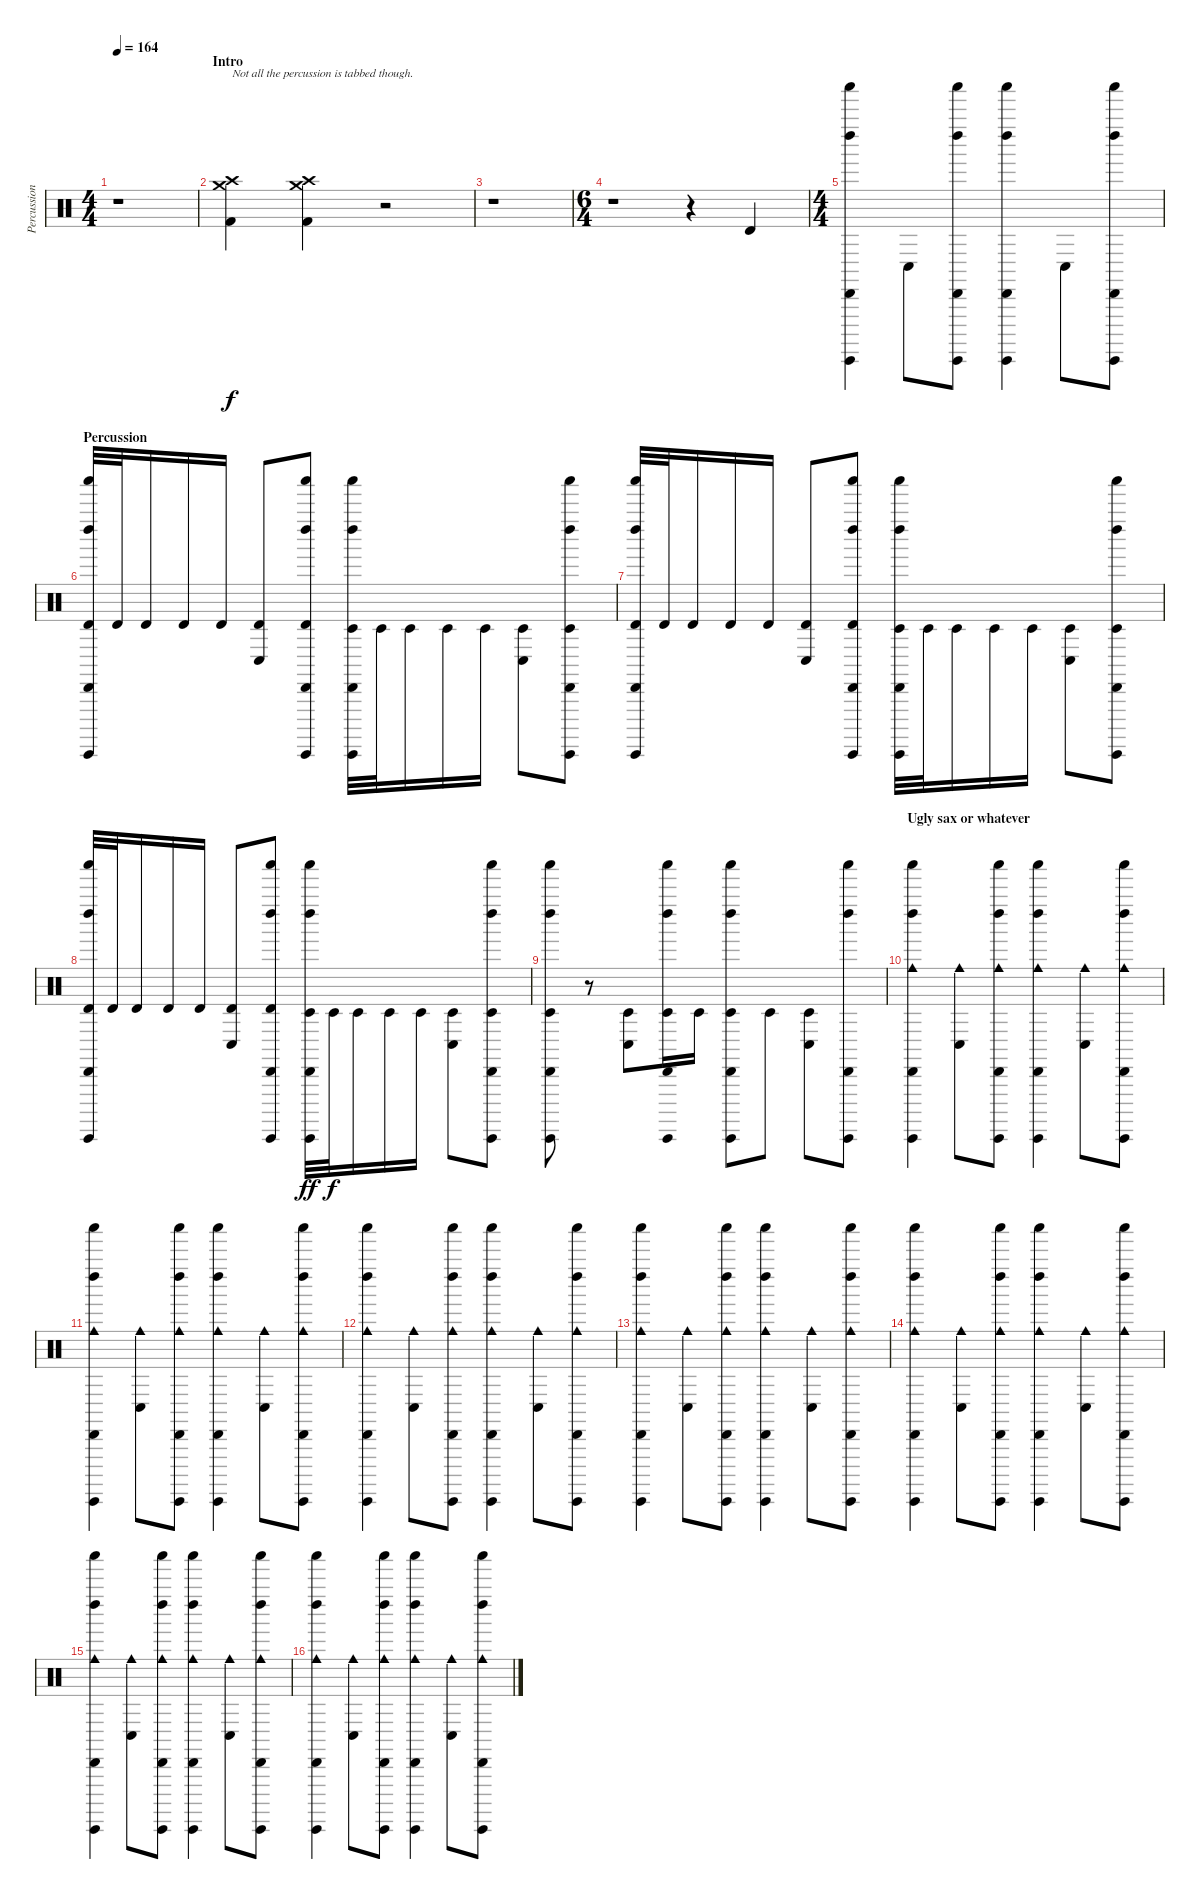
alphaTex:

\track ("Percussion" "Percussion") {instrument percussion}
\staff {score}
\articulation defaults
\ts (4 4)
\tempo 164
\clef neutral
\ks c
r.1{dy f} |
\section ("" "Intro")
("Crash high (hit)" "Crash medium (hit)" "Kick (hit) 2").4{txt "Not all the percussion is tabbed though."} ("Crash high (hit)" "Crash medium (hit)" "Kick (hit) 2").4 r.2 |
r.1 |
\ts (6 4)
r.1 r.4 "Timbale high (hit)".4 |
\ts (4 4)
("Shaker (hit)" "Guiro (hit)" "Left Maraca (hit)" "Cabasa (hit)").4 "Conga low (hit)".8 ("Shaker (hit)" "Guiro (hit)" "Left Maraca (hit)" "Cabasa (hit)").8 ("Shaker (hit)" "Guiro (hit)" "Left Maraca (hit)" "Cabasa (hit)").4 "Conga low (hit)".8 ("Shaker (hit)" "Guiro (hit)" "Left Maraca (hit)" "Cabasa (hit)").8 |
\section ("" "Percussion")
("Shaker (hit)" "Guiro (hit)" "Left Maraca (hit)" "Cabasa (hit)" "Timbale high (hit)").32{balance 0} "Timbale high (hit)".32 "Timbale high (hit)".16 "Timbale high (hit)".16 "Timbale high (hit)".16 ("Conga low (hit)" "Timbale high (hit)").8 ("Shaker (hit)" "Guiro (hit)" "Left Maraca (hit)" "Cabasa (hit)" "Timbale high (hit)").8 ("Shaker (hit)" "Guiro (hit)" "Left Maraca (hit)" "Cabasa (hit)" "Timbale low (hit)").32{balance 16} "Timbale low (hit)".32 "Timbale low (hit)".16 "Timbale low (hit)".16 "Timbale low (hit)".16 ("Conga low (hit)" "Timbale low (hit)").8 ("Shaker (hit)" "Guiro (hit)" "Left Maraca (hit)" "Cabasa (hit)" "Timbale low (hit)").8 |
("Shaker (hit)" "Guiro (hit)" "Left Maraca (hit)" "Cabasa (hit)" "Timbale high (hit)").32{balance 0} "Timbale high (hit)".32 "Timbale high (hit)".16 "Timbale high (hit)".16 "Timbale high (hit)".16 ("Conga low (hit)" "Timbale high (hit)").8 ("Shaker (hit)" "Guiro (hit)" "Left Maraca (hit)" "Cabasa (hit)" "Timbale high (hit)").8 ("Shaker (hit)" "Guiro (hit)" "Left Maraca (hit)" "Cabasa (hit)" "Timbale low (hit)").32{balance 16} "Timbale low (hit)".32 "Timbale low (hit)".16 "Timbale low (hit)".16 "Timbale low (hit)".16 ("Conga low (hit)" "Timbale low (hit)").8 ("Shaker (hit)" "Guiro (hit)" "Left Maraca (hit)" "Cabasa (hit)" "Timbale low (hit)").8 |
("Shaker (hit)" "Guiro (hit)" "Left Maraca (hit)" "Cabasa (hit)" "Timbale high (hit)").32{balance 0} "Timbale high (hit)".32 "Timbale high (hit)".16 "Timbale high (hit)".16 "Timbale high (hit)".16 ("Conga low (hit)" "Timbale high (hit)").8 ("Shaker (hit)" "Guiro (hit)" "Left Maraca (hit)" "Cabasa (hit)" "Timbale high (hit)").8 ("Shaker (hit)" "Guiro (hit)" "Left Maraca (hit)" "Cabasa (hit)" "Timbale low (hit)").32{dy ff balance 16} "Timbale low (hit)".32{dy f} "Timbale low (hit)".16 "Timbale low (hit)".16 "Timbale low (hit)".16 ("Conga low (hit)" "Timbale low (hit)").8 ("Shaker (hit)" "Guiro (hit)" "Left Maraca (hit)" "Cabasa (hit)" "Timbale low (hit)").8 |
("Shaker (hit)" "Guiro (hit)" "Left Maraca (hit)" "Cabasa (hit)" "Timbale low (hit)").8 r.8 ("Conga low (hit)" "Timbale low (hit)").8 ("Shaker (hit)" "Guiro (hit)" "Left Maraca (hit)" "Cabasa (hit)" "Timbale low (hit)").16 "Timbale low (hit)".16 ("Shaker (hit)" "Guiro (hit)" "Left Maraca (hit)" "Cabasa (hit)" "Timbale low (hit)").8 "Timbale low (hit)".8 ("Conga low (hit)" "Timbale low (hit)").8 ("Shaker (hit)" "Guiro (hit)" "Left Maraca (hit)" "Cabasa (hit)").8 |
\section ("" "Ugly sax or whatever")
("Shaker (hit)" "Guiro (hit)" "Left Maraca (hit)" "Cabasa (hit)" "Cowbell medium (hit)").4{balance 8} ("Conga low (hit)" "Cowbell medium (hit)").8 ("Shaker (hit)" "Guiro (hit)" "Left Maraca (hit)" "Cabasa (hit)" "Cowbell medium (hit)").8 ("Shaker (hit)" "Guiro (hit)" "Left Maraca (hit)" "Cabasa (hit)" "Cowbell medium (hit)").4 ("Conga low (hit)" "Cowbell medium (hit)").8 ("Shaker (hit)" "Guiro (hit)" "Left Maraca (hit)" "Cabasa (hit)" "Cowbell medium (hit)").8 |
("Shaker (hit)" "Guiro (hit)" "Left Maraca (hit)" "Cabasa (hit)" "Cowbell medium (hit)").4 ("Conga low (hit)" "Cowbell medium (hit)").8 ("Shaker (hit)" "Guiro (hit)" "Left Maraca (hit)" "Cabasa (hit)" "Cowbell medium (hit)").8 ("Shaker (hit)" "Guiro (hit)" "Left Maraca (hit)" "Cabasa (hit)" "Cowbell medium (hit)").4 ("Conga low (hit)" "Cowbell medium (hit)").8 ("Shaker (hit)" "Guiro (hit)" "Left Maraca (hit)" "Cabasa (hit)" "Cowbell medium (hit)").8 |
("Shaker (hit)" "Guiro (hit)" "Left Maraca (hit)" "Cabasa (hit)" "Cowbell medium (hit)").4 ("Conga low (hit)" "Cowbell medium (hit)").8 ("Shaker (hit)" "Guiro (hit)" "Left Maraca (hit)" "Cabasa (hit)" "Cowbell medium (hit)").8 ("Shaker (hit)" "Guiro (hit)" "Left Maraca (hit)" "Cabasa (hit)" "Cowbell medium (hit)").4 ("Conga low (hit)" "Cowbell medium (hit)").8 ("Shaker (hit)" "Guiro (hit)" "Left Maraca (hit)" "Cabasa (hit)" "Cowbell medium (hit)").8 |
("Shaker (hit)" "Guiro (hit)" "Left Maraca (hit)" "Cabasa (hit)" "Cowbell medium (hit)").4 ("Conga low (hit)" "Cowbell medium (hit)").8 ("Shaker (hit)" "Guiro (hit)" "Left Maraca (hit)" "Cabasa (hit)" "Cowbell medium (hit)").8 ("Shaker (hit)" "Guiro (hit)" "Left Maraca (hit)" "Cabasa (hit)" "Cowbell medium (hit)").4 ("Conga low (hit)" "Cowbell medium (hit)").8 ("Shaker (hit)" "Guiro (hit)" "Left Maraca (hit)" "Cabasa (hit)" "Cowbell medium (hit)").8 |
("Shaker (hit)" "Guiro (hit)" "Left Maraca (hit)" "Cabasa (hit)" "Cowbell medium (hit)").4 ("Conga low (hit)" "Cowbell medium (hit)").8 ("Shaker (hit)" "Guiro (hit)" "Left Maraca (hit)" "Cabasa (hit)" "Cowbell medium (hit)").8 ("Shaker (hit)" "Guiro (hit)" "Left Maraca (hit)" "Cabasa (hit)" "Cowbell medium (hit)").4 ("Conga low (hit)" "Cowbell medium (hit)").8 ("Shaker (hit)" "Guiro (hit)" "Left Maraca (hit)" "Cabasa (hit)" "Cowbell medium (hit)").8 |
("Shaker (hit)" "Guiro (hit)" "Left Maraca (hit)" "Cabasa (hit)" "Cowbell medium (hit)").4 ("Conga low (hit)" "Cowbell medium (hit)").8 ("Shaker (hit)" "Guiro (hit)" "Left Maraca (hit)" "Cabasa (hit)" "Cowbell medium (hit)").8 ("Shaker (hit)" "Guiro (hit)" "Left Maraca (hit)" "Cabasa (hit)" "Cowbell medium (hit)").4 ("Conga low (hit)" "Cowbell medium (hit)").8 ("Shaker (hit)" "Guiro (hit)" "Left Maraca (hit)" "Cabasa (hit)" "Cowbell medium (hit)").8 |
("Shaker (hit)" "Guiro (hit)" "Left Maraca (hit)" "Cabasa (hit)" "Cowbell medium (hit)").4 ("Conga low (hit)" "Cowbell medium (hit)").8 ("Shaker (hit)" "Guiro (hit)" "Left Maraca (hit)" "Cabasa (hit)" "Cowbell medium (hit)").8 ("Shaker (hit)" "Guiro (hit)" "Left Maraca (hit)" "Cabasa (hit)" "Cowbell medium (hit)").4 ("Conga low (hit)" "Cowbell medium (hit)").8 ("Shaker (hit)" "Guiro (hit)" "Left Maraca (hit)" "Cabasa (hit)" "Cowbell medium (hit)").8
